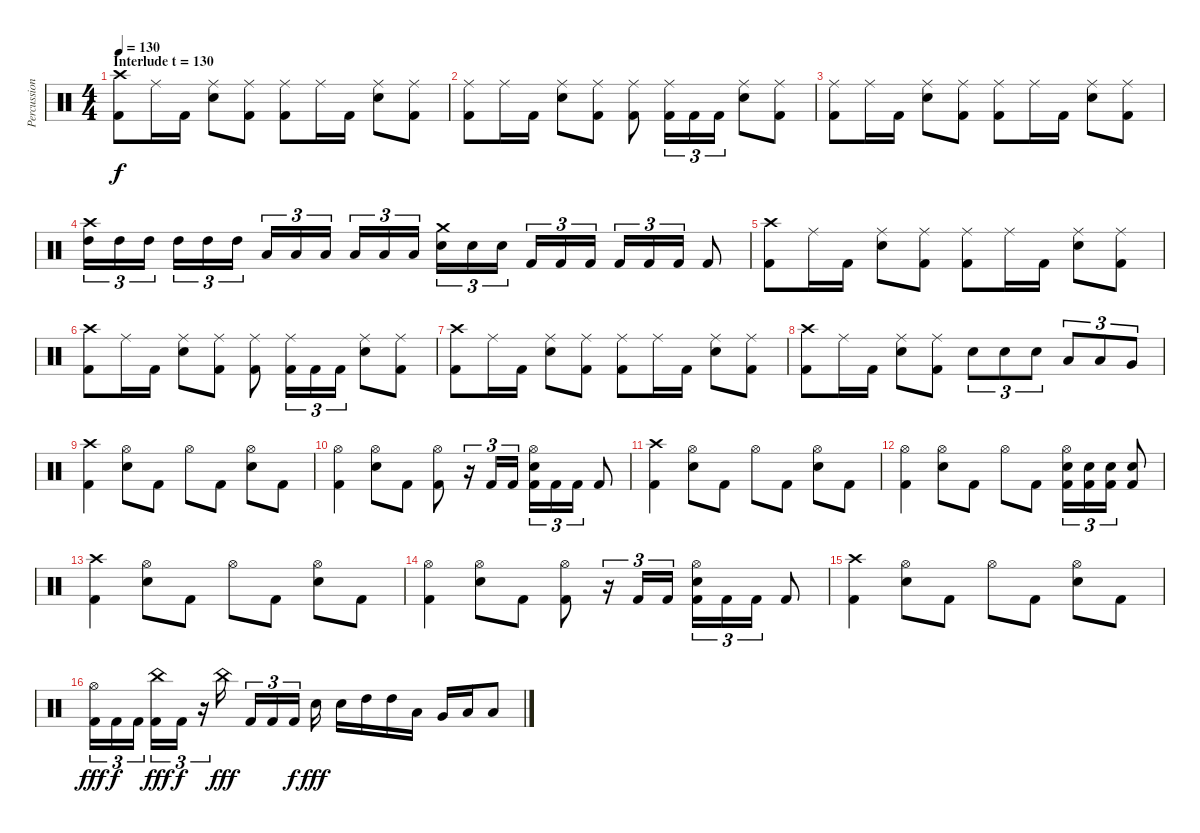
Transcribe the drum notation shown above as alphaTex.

\track ("Percussion" "Percussion") {instrument percussion}
\staff {score}
\articulation defaults
\ts (4 4)
\section ("" "Interlude t = 130")
\tempo 130
\clef neutral
\ks c
("Crash high (hit)" "Kick (hit) 2").8{dy f} "Ride (middle)".16 "Kick (hit) 2".16 ("Ride (middle)" "Electric Snare (hit)").8 ("Ride (middle)" "Kick (hit) 2").8 ("Ride (middle)" "Kick (hit) 2").8 "Ride (middle)".16 "Kick (hit) 2".16 ("Ride (middle)" "Electric Snare (hit)").8 ("Ride (middle)" "Kick (hit) 2").8 |
("Ride (middle)" "Kick (hit) 2").8 "Ride (middle)".16 "Kick (hit) 2".16 ("Ride (middle)" "Electric Snare (hit)").8 ("Ride (middle)" "Kick (hit) 2").8 ("Ride (middle)" "Kick (hit) 2").8 ("Ride (middle)" "Kick (hit) 2").16{tu (3 2)} "Kick (hit) 2".16{tu (3 2)} "Kick (hit) 2".16{tu (3 2)} ("Ride (middle)" "Electric Snare (hit)").8 ("Ride (middle)" "Kick (hit) 2").8 |
("Ride (middle)" "Kick (hit) 2").8 "Ride (middle)".16 "Kick (hit) 2".16 ("Ride (middle)" "Electric Snare (hit)").8 ("Ride (middle)" "Kick (hit) 2").8 ("Ride (middle)" "Kick (hit) 2").8 "Ride (middle)".16 "Kick (hit) 2".16 ("Ride (middle)" "Electric Snare (hit)").8 ("Ride (middle)" "Kick (hit) 2").8 |
("Crash high (hit)" "High Tom (hit)").16{tu (3 2)} "High Tom (hit)".16{tu (3 2)} "High Tom (hit)".16{tu (3 2) beam splitsecondary} "High Tom (hit)".16{tu (3 2)} "High Tom (hit)".16{tu (3 2)} "High Tom (hit)".16{tu (3 2)} "Low Tom (hit)".16{tu (3 2)} "Low Tom (hit)".16{tu (3 2)} "Low Tom (hit)".16{tu (3 2) beam splitsecondary} "Low Tom (hit)".16{tu (3 2)} "Low Tom (hit)".16{tu (3 2)} "Low Tom (hit)".16{tu (3 2)} ("Crash medium (hit)" "Electric Snare (hit)").16{tu (3 2)} "Electric Snare (hit)".16{tu (3 2)} "Electric Snare (hit)".16{tu (3 2) beam splitsecondary} "Kick (hit) 2".16{tu (3 2)} "Kick (hit) 2".16{tu (3 2)} "Kick (hit) 2".16{tu (3 2)} "Kick (hit) 2".16{tu (3 2)} "Kick (hit) 2".16{tu (3 2)} "Kick (hit) 2".16{tu (3 2)} "Kick (hit) 2".8 |
("Crash high (hit)" "Kick (hit) 2").8 "Ride (middle)".16 "Kick (hit) 2".16 ("Ride (middle)" "Electric Snare (hit)").8 ("Ride (middle)" "Kick (hit) 2").8 ("Ride (middle)" "Kick (hit) 2").8 "Ride (middle)".16 "Kick (hit) 2".16 ("Ride (middle)" "Electric Snare (hit)").8 ("Ride (middle)" "Kick (hit) 2").8 |
("Crash high (hit)" "Kick (hit) 2").8 "Ride (middle)".16 "Kick (hit) 2".16 ("Ride (middle)" "Electric Snare (hit)").8 ("Ride (middle)" "Kick (hit) 2").8 ("Ride (middle)" "Kick (hit) 2").8 ("Ride (middle)" "Kick (hit) 2").16{tu (3 2)} "Kick (hit) 2".16{tu (3 2)} "Kick (hit) 2".16{tu (3 2)} ("Ride (middle)" "Electric Snare (hit)").8 ("Ride (middle)" "Kick (hit) 2").8 |
("Crash high (hit)" "Kick (hit) 2").8 "Ride (middle)".16 "Kick (hit) 2".16 ("Ride (middle)" "Electric Snare (hit)").8 ("Ride (middle)" "Kick (hit) 2").8 ("Ride (middle)" "Kick (hit) 2").8 "Ride (middle)".16 "Kick (hit) 2".16 ("Ride (middle)" "Electric Snare (hit)").8 ("Ride (middle)" "Kick (hit) 2").8 |
("Crash high (hit)" "Kick (hit) 2").8 "Ride (middle)".16 "Kick (hit) 2".16 ("Ride (middle)" "Electric Snare (hit)").8 ("Ride (middle)" "Kick (hit) 2").8 "Electric Snare (hit)".8{tu (3 2)} "Electric Snare (hit)".8{tu (3 2)} "Electric Snare (hit)".8{tu (3 2)} "Low Tom (hit)".8{tu (3 2)} "Low Tom (hit)".8{tu (3 2)} "Very Low Tom (hit)".8{tu (3 2)} |
("Crash high (hit)" "Kick (hit) 2").4 ("Hi-Hat (open)" "Electric Snare (hit)").8 "Kick (hit) 2".8 "Hi-Hat (open)".8 "Kick (hit) 2".8 ("Hi-Hat (open)" "Electric Snare (hit)").8 "Kick (hit) 2".8 |
("Hi-Hat (open)" "Kick (hit) 2").4 ("Hi-Hat (open)" "Electric Snare (hit)").8 "Kick (hit) 2".8 ("Hi-Hat (open)" "Kick (hit) 2").8 r.16{tu (3 2)} "Kick (hit) 2".16{tu (3 2)} "Kick (hit) 2".16{tu (3 2)} ("Hi-Hat (open)" "Electric Snare (hit)" "Kick (hit) 2").16{tu (3 2)} "Kick (hit) 2".16{tu (3 2)} "Kick (hit) 2".16{tu (3 2)} "Kick (hit) 2".8 |
("Crash high (hit)" "Kick (hit) 2").4 ("Hi-Hat (open)" "Electric Snare (hit)").8 "Kick (hit) 2".8 "Hi-Hat (open)".8 "Kick (hit) 2".8 ("Hi-Hat (open)" "Electric Snare (hit)").8 "Kick (hit) 2".8 |
("Hi-Hat (open)" "Kick (hit) 2").4 ("Hi-Hat (open)" "Electric Snare (hit)").8 "Kick (hit) 2".8 "Hi-Hat (open)".8 "Kick (hit) 2".8 ("Hi-Hat (open)" "Electric Snare (hit)" "Kick (hit) 2").16{tu (3 2)} ("Electric Snare (hit)" "Kick (hit) 2").16{tu (3 2)} ("Electric Snare (hit)" "Kick (hit) 2").16{tu (3 2)} ("Electric Snare (hit)" "Kick (hit) 2").8 |
("Crash high (hit)" "Kick (hit) 2").4 ("Hi-Hat (open)" "Electric Snare (hit)").8 "Kick (hit) 2".8 "Hi-Hat (open)".8 "Kick (hit) 2".8 ("Hi-Hat (open)" "Electric Snare (hit)").8 "Kick (hit) 2".8 |
("Hi-Hat (open)" "Kick (hit) 2").4 ("Hi-Hat (open)" "Electric Snare (hit)").8 "Kick (hit) 2".8 ("Hi-Hat (open)" "Kick (hit) 2").8 r.16{tu (3 2)} "Kick (hit) 2".16{tu (3 2)} "Kick (hit) 2".16{tu (3 2)} ("Hi-Hat (open)" "Electric Snare (hit)" "Kick (hit) 2").16{tu (3 2)} "Kick (hit) 2".16{tu (3 2)} "Kick (hit) 2".16{tu (3 2)} "Kick (hit) 2".8 |
("Crash high (hit)" "Kick (hit) 2").4 ("Hi-Hat (open)" "Electric Snare (hit)").8 "Kick (hit) 2".8 "Hi-Hat (open)".8 "Kick (hit) 2".8 ("Hi-Hat (open)" "Electric Snare (hit)").8 "Kick (hit) 2".8 |
("Hi-Hat (open)" "Kick (hit) 2").16{tu (3 2) dy fff} "Kick (hit) 2".16{tu (3 2) dy f} "Kick (hit) 2".16{tu (3 2) beam splitsecondary} ("China (hit)" "Kick (hit) 2").16{tu (3 2) dy fff} "Kick (hit) 2".16{tu (3 2) dy f} r.16{tu (3 2)} "China (hit)".16{dy fff beam splitsecondary} "Kick (hit) 2".16{tu (3 2)} "Kick (hit) 2".16{tu (3 2)} "Kick (hit) 2".16{tu (3 2) dy f beam splitsecondary} "Electric Snare (hit)".16{dy fff} "Electric Snare (hit)".16 "High Tom (hit)".16 "High Tom (hit)".16 "Low Tom (hit)".16 "Very Low Tom (hit)".16 "Low Floor Tom (hit)".16 "Low Floor Tom (hit)".8
